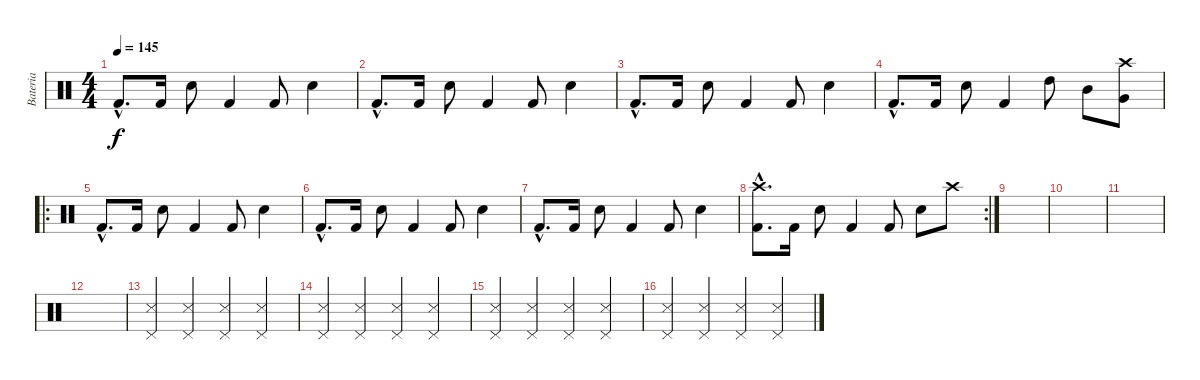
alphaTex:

\track (" Bateria" " Bateria") {instrument percussion}
\staff {score}
\articulation defaults
\ts (4 4)
\tempo 145
\clef neutral
\ks c "Kick (hit) 2"{hac}.8{d dy f} "Kick (hit) 2".16 "Snare (hit) 2".8 "Kick (hit) 2".4 "Kick (hit) 2".8 "Snare (hit) 2".4
|
"Kick (hit) 2"{hac}.8{d} "Kick (hit) 2".16 "Snare (hit) 2".8 "Kick (hit) 2".4 "Kick (hit) 2".8 "Snare (hit) 2".4 |
"Kick (hit) 2"{hac}.8{d} "Kick (hit) 2".16 "Snare (hit) 2".8 "Kick (hit) 2".4 "Kick (hit) 2".8 "Snare (hit) 2".4 |
"Kick (hit) 2"{hac}.8{d} "Kick (hit) 2".16 "Snare (hit) 2".8 "Kick (hit) 2".4 "High Tom (hit)".8 "Mid Tom (hit)".8 ("Crash high (hit)" "Very Low Tom (hit)").8 |
\ro "Kick (hit) 2"{hac}.8{d} "Kick (hit) 2".16 "Snare (hit) 2".8 "Kick (hit) 2".4 "Kick (hit) 2".8 "Snare (hit) 2".4
|
"Kick (hit) 2"{hac}.8{d} "Kick (hit) 2".16 "Snare (hit) 2".8 "Kick (hit) 2".4 "Kick (hit) 2".8 "Snare (hit) 2".4 |
"Kick (hit) 2"{hac}.8{d} "Kick (hit) 2".16 "Snare (hit) 2".8 "Kick (hit) 2".4 "Kick (hit) 2".8 "Snare (hit) 2".4 |
\rc 2
("Kick (hit) 2"{hac} "Crash high (hit)"{hac}).8{d} "Kick (hit) 2".16 "Snare (hit) 2".8 "Kick (hit) 2".4 "Kick (hit) 2".8 "Snare (hit) 2".8 "Crash high (hit)".8 |
|
|
|
|
("Pedal Hi-Hat (hit)" "Snare (side stick) 3").4 ("Pedal Hi-Hat (hit)" "Snare (side stick) 3").4 ("Pedal Hi-Hat (hit)" "Snare (side stick) 3").4 ("Pedal Hi-Hat (hit)" "Snare (side stick) 3").4 |
("Pedal Hi-Hat (hit)" "Snare (side stick) 3").4 ("Pedal Hi-Hat (hit)" "Snare (side stick) 3").4 ("Pedal Hi-Hat (hit)" "Snare (side stick) 3").4 ("Pedal Hi-Hat (hit)" "Snare (side stick) 3").4 |
("Pedal Hi-Hat (hit)" "Snare (side stick) 3").4 ("Pedal Hi-Hat (hit)" "Snare (side stick) 3").4 ("Pedal Hi-Hat (hit)" "Snare (side stick) 3").4 ("Pedal Hi-Hat (hit)" "Snare (side stick) 3").4 |
("Pedal Hi-Hat (hit)" "Snare (side stick) 3").4 ("Pedal Hi-Hat (hit)" "Snare (side stick) 3").4 ("Pedal Hi-Hat (hit)" "Snare (side stick) 3").4 ("Pedal Hi-Hat (hit)" "Snare (side stick) 3").4
